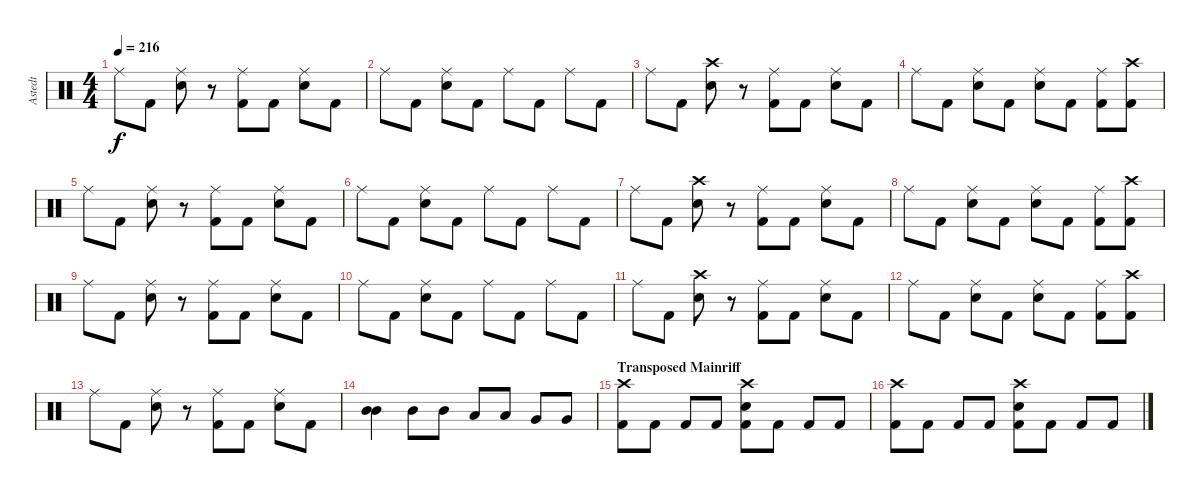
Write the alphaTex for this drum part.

\track ("Astedt" "Astedt") {instrument percussion}
\staff {score}
\articulation defaults
\ts (4 4)
\tempo 216
\clef neutral
\ks c "Ride (middle)".8{dy f} "Kick (hit) 2".8
("Ride (middle)" "Snare (hit) 2").8 r.8 ("Ride (middle)" "Kick (hit) 2").8 "Kick (hit) 2".8 ("Ride (middle)" "Snare (hit) 2").8 "Kick (hit) 2".8 |
"Ride (middle)".8 "Kick (hit) 2".8 ("Ride (middle)" "Snare (hit) 2").8 "Kick (hit) 2".8 "Ride (middle)".8 "Kick (hit) 2".8 "Ride (middle)".8 "Kick (hit) 2".8 |
"Ride (middle)".8 "Kick (hit) 2".8 ("Crash high (hit)" "Snare (hit) 2").8 r.8 ("Ride (middle)" "Kick (hit) 2").8 "Kick (hit) 2".8 ("Ride (middle)" "Snare (hit) 2").8 "Kick (hit) 2".8 |
"Ride (middle)".8 "Kick (hit) 2".8 ("Ride (middle)" "Snare (hit) 2").8 "Kick (hit) 2".8 ("Ride (middle)" "Snare (hit) 2").8 "Kick (hit) 2".8 ("Ride (middle)" "Kick (hit) 2").8 ("Crash high (hit)" "Kick (hit) 2").8 |
"Ride (middle)".8 "Kick (hit) 2".8 ("Ride (middle)" "Snare (hit) 2").8 r.8 ("Ride (middle)" "Kick (hit) 2").8 "Kick (hit) 2".8 ("Ride (middle)" "Snare (hit) 2").8 "Kick (hit) 2".8 |
"Ride (middle)".8 "Kick (hit) 2".8 ("Ride (middle)" "Snare (hit) 2").8 "Kick (hit) 2".8 "Ride (middle)".8 "Kick (hit) 2".8 "Ride (middle)".8 "Kick (hit) 2".8 |
"Ride (middle)".8 "Kick (hit) 2".8 ("Crash high (hit)" "Snare (hit) 2").8 r.8 ("Ride (middle)" "Kick (hit) 2").8 "Kick (hit) 2".8 ("Ride (middle)" "Snare (hit) 2").8 "Kick (hit) 2".8 |
"Ride (middle)".8 "Kick (hit) 2".8 ("Ride (middle)" "Snare (hit) 2").8 "Kick (hit) 2".8 ("Ride (middle)" "Snare (hit) 2").8 "Kick (hit) 2".8 ("Ride (middle)" "Kick (hit) 2").8 ("Crash high (hit)" "Kick (hit) 2").8 |
"Ride (middle)".8 "Kick (hit) 2".8 ("Ride (middle)" "Snare (hit) 2").8 r.8 ("Ride (middle)" "Kick (hit) 2").8 "Kick (hit) 2".8 ("Ride (middle)" "Snare (hit) 2").8 "Kick (hit) 2".8 |
"Ride (middle)".8 "Kick (hit) 2".8 ("Ride (middle)" "Snare (hit) 2").8 "Kick (hit) 2".8 "Ride (middle)".8 "Kick (hit) 2".8 "Ride (middle)".8 "Kick (hit) 2".8 |
"Ride (middle)".8 "Kick (hit) 2".8 ("Crash high (hit)" "Snare (hit) 2").8 r.8 ("Ride (middle)" "Kick (hit) 2").8 "Kick (hit) 2".8 ("Ride (middle)" "Snare (hit) 2").8 "Kick (hit) 2".8 |
"Ride (middle)".8 "Kick (hit) 2".8 ("Ride (middle)" "Snare (hit) 2").8 "Kick (hit) 2".8 ("Ride (middle)" "Snare (hit) 2").8 "Kick (hit) 2".8 ("Ride (middle)" "Kick (hit) 2").8 ("Crash high (hit)" "Kick (hit) 2").8 |
"Ride (middle)".8 "Kick (hit) 2".8 ("Ride (middle)" "Snare (hit) 2").8 r.8 ("Ride (middle)" "Kick (hit) 2").8 "Kick (hit) 2".8 ("Ride (middle)" "Snare (hit) 2").8 "Kick (hit) 2".8 |
("Mid Tom (hit)" "Mid Tom (hit)").4 "Mid Tom (hit)".8 "Mid Tom (hit)".8 "Low Tom (hit)".8 "Low Tom (hit)".8 "Very Low Tom (hit)".8 "Very Low Tom (hit)".8 |
\section ("" "Transposed Mainriff")
("Crash high (hit)" "Kick (hit) 2").8 "Kick (hit) 2".8 "Kick (hit) 2".8 "Kick (hit) 2".8 ("Crash high (hit)" "Snare (hit) 2" "Kick (hit) 2").8 "Kick (hit) 2".8 "Kick (hit) 2".8 "Kick (hit) 2".8 |
("Crash high (hit)" "Kick (hit) 2").8 "Kick (hit) 2".8 "Kick (hit) 2".8 "Kick (hit) 2".8 ("Crash high (hit)" "Snare (hit) 2" "Kick (hit) 2").8 "Kick (hit) 2".8 "Kick (hit) 2".8 "Kick (hit) 2".8
